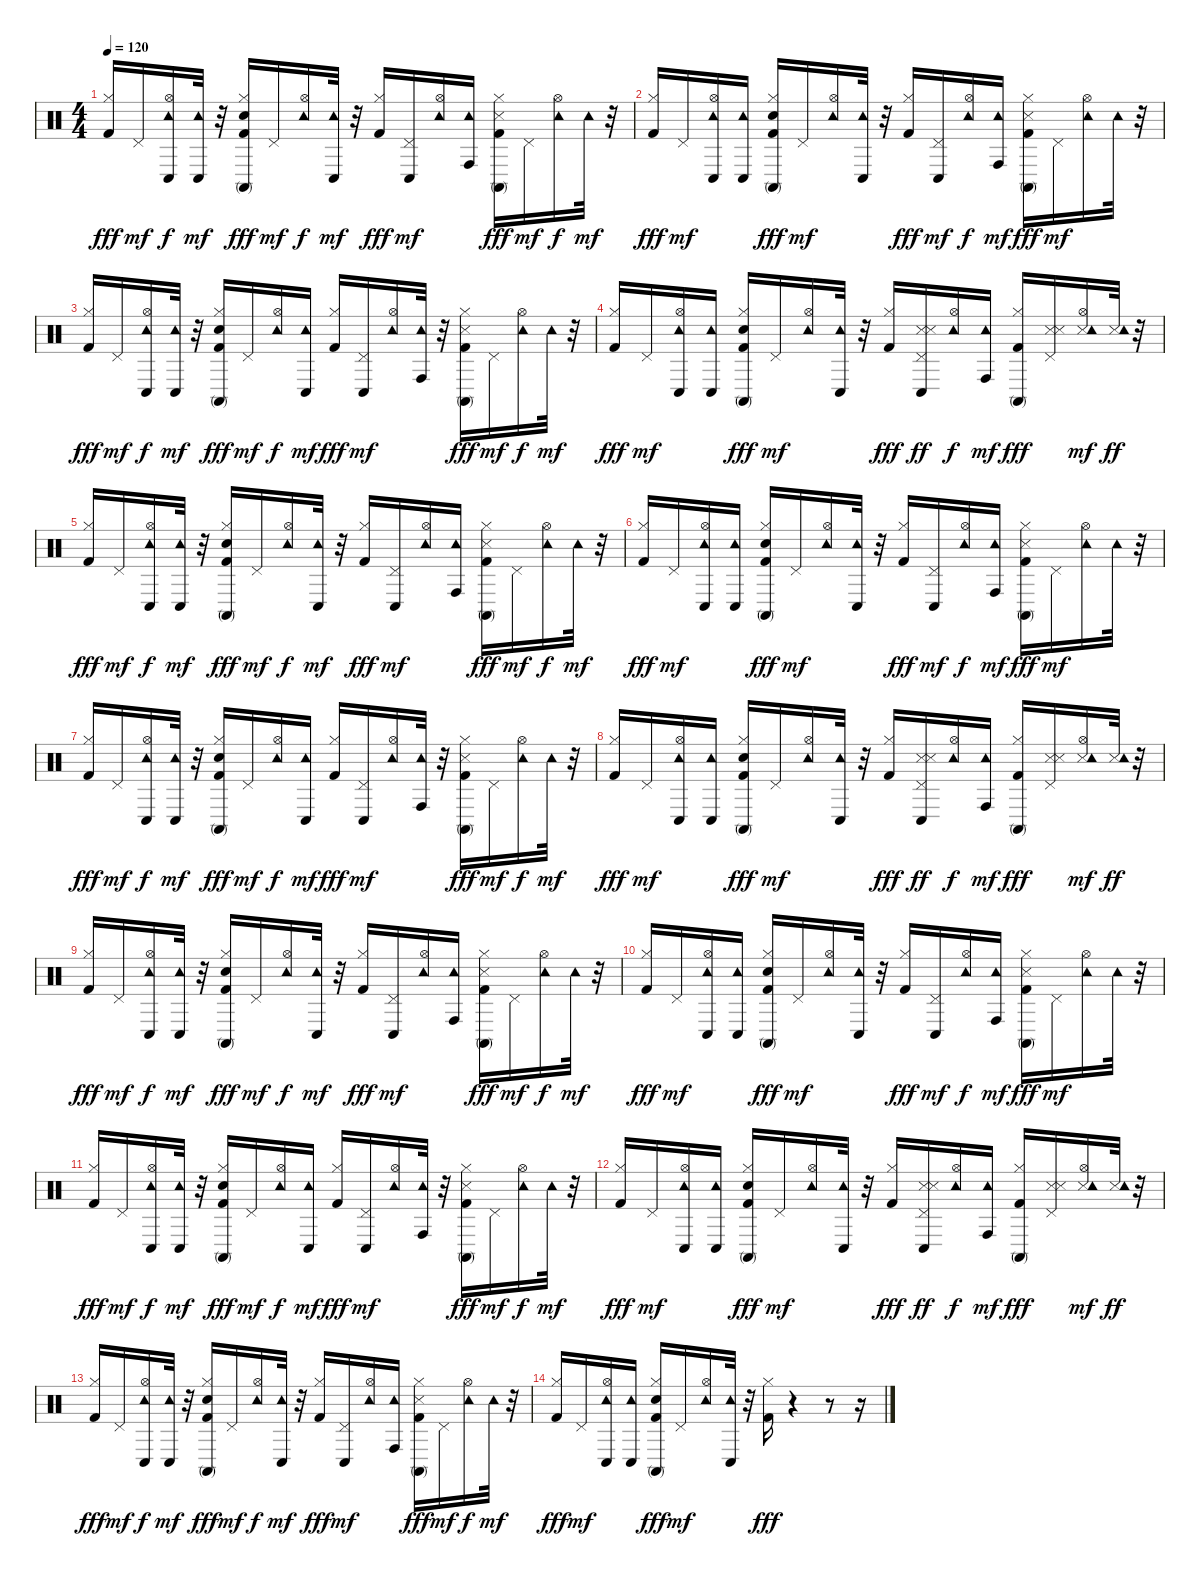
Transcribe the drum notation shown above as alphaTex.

\track "" {instrument percussion}
\staff {score}
\articulation defaults
\ts (4 4)
\tempo 120
\clef neutral
\ks c
("Kick (hit) 2" "Hi-Hat (closed)").16{dy fff} "Pedal Hi-Hat (hit)".16{dy mf} ("Conga low (hit)" "Hi-Hat (open)" "Tambourine (hit)").16{dy f} ("Conga low (hit)" "Tambourine (hit)").32{dy mf} r.32 ("Conga high (mute)" "Kick (hit) 2" "Hi-Hat (closed)" "Snare (hit) 2").16{dy fff} "Pedal Hi-Hat (hit)".16{dy mf} ("Hi-Hat (open)" "Tambourine (hit)").16{dy f} ("Conga low (hit)" "Tambourine (hit)").32{dy mf} r.32 ("Kick (hit) 2" "Hi-Hat (closed)").16{dy fff} ("Conga low (hit)" "Pedal Hi-Hat (hit)").16{dy mf} ("Hi-Hat (open)" "Tambourine (hit)").16 ("Conga high (hit)" "Tambourine (hit)").16 ("Conga high (mute)" "Kick (hit) 2" "Hi-Hat (closed)" "Snare (side stick) 3").16{dy fff} "Pedal Hi-Hat (hit)".16{dy mf} ("Hi-Hat (open)" "Tambourine (hit)").16{dy f} "Tambourine (hit)".32{dy mf} r.32 |
("Kick (hit) 2" "Hi-Hat (closed)").16{dy fff} "Pedal Hi-Hat (hit)".16{dy mf} ("Conga low (hit)" "Hi-Hat (open)" "Tambourine (hit)").16 ("Conga low (hit)" "Tambourine (hit)").16 ("Conga high (mute)" "Kick (hit) 2" "Hi-Hat (closed)" "Snare (hit) 2").16{dy fff} "Pedal Hi-Hat (hit)".16{dy mf} ("Hi-Hat (open)" "Tambourine (hit)").16 ("Conga low (hit)" "Tambourine (hit)").32 r.32 ("Kick (hit) 2" "Hi-Hat (closed)").16{dy fff} ("Conga low (hit)" "Pedal Hi-Hat (hit)").16{dy mf} ("Hi-Hat (open)" "Tambourine (hit)").16{dy f} ("Conga high (hit)" "Tambourine (hit)").16{dy mf} ("Hi-Hat (closed)" "Kick (hit) 2" "Conga high (mute)" "Snare (side stick) 3").16{dy fff} "Pedal Hi-Hat (hit)".16{dy mf} ("Hi-Hat (open)" "Tambourine (hit)").16 "Tambourine (hit)".32 r.32 |
("Hi-Hat (closed)" "Kick (hit) 2").16{dy fff} "Pedal Hi-Hat (hit)".16{dy mf} ("Conga low (hit)" "Hi-Hat (open)" "Tambourine (hit)").16{dy f} ("Conga low (hit)" "Tambourine (hit)").32{dy mf} r.32 ("Conga high (mute)" "Kick (hit) 2" "Hi-Hat (closed)" "Snare (hit) 2").16{dy fff} "Pedal Hi-Hat (hit)".16{dy mf} ("Hi-Hat (open)" "Tambourine (hit)").16{dy f} ("Conga low (hit)" "Tambourine (hit)").16{dy mf} ("Kick (hit) 2" "Hi-Hat (closed)").16{dy fff} ("Conga low (hit)" "Pedal Hi-Hat (hit)").16{dy mf} ("Hi-Hat (open)" "Tambourine (hit)").16 ("Conga high (hit)" "Tambourine (hit)").32 r.32 ("Hi-Hat (closed)" "Conga high (mute)" "Kick (hit) 2" "Snare (side stick) 3").16{dy fff} "Pedal Hi-Hat (hit)".16{dy mf} ("Hi-Hat (open)" "Tambourine (hit)").16{dy f} "Tambourine (hit)".32{dy mf} r.32 |
("Kick (hit) 2" "Hi-Hat (closed)").16{dy fff} "Pedal Hi-Hat (hit)".16{dy mf} ("Conga low (hit)" "Hi-Hat (open)" "Tambourine (hit)").16 ("Conga low (hit)" "Tambourine (hit)").16 ("Conga high (mute)" "Kick (hit) 2" "Hi-Hat (closed)" "Snare (hit) 2").16{dy fff} "Pedal Hi-Hat (hit)".16{dy mf} ("Hi-Hat (open)" "Tambourine (hit)").16 ("Conga low (hit)" "Tambourine (hit)").32 r.32 ("Kick (hit) 2" "Hi-Hat (closed)").16{dy fff} ("Conga low (hit)" "Pedal Hi-Hat (hit)" "Snare (side stick) 3" "Snare (side stick) 3").16{dy ff} ("Hi-Hat (open)" "Tambourine (hit)").16{dy f} ("Conga high (hit)" "Tambourine (hit)").16{dy mf} ("Hi-Hat (closed)" "Kick (hit) 2" "Conga high (mute)").16{dy fff} ("Pedal Hi-Hat (hit)" "Snare (side stick) 3" "Snare (side stick) 3").16 ("Hi-Hat (open)" "Snare (side stick) 3" "Tambourine (hit)").16{dy mf} ("Snare (side stick) 3" "Tambourine (hit)").32{dy ff} r.32 |
("Kick (hit) 2" "Hi-Hat (closed)").16{dy fff} "Pedal Hi-Hat (hit)".16{dy mf} ("Conga low (hit)" "Hi-Hat (open)" "Tambourine (hit)").16{dy f} ("Conga low (hit)" "Tambourine (hit)").32{dy mf} r.32 ("Conga high (mute)" "Kick (hit) 2" "Hi-Hat (closed)" "Snare (hit) 2").16{dy fff} "Pedal Hi-Hat (hit)".16{dy mf} ("Hi-Hat (open)" "Tambourine (hit)").16{dy f} ("Conga low (hit)" "Tambourine (hit)").32{dy mf} r.32 ("Kick (hit) 2" "Hi-Hat (closed)").16{dy fff} ("Conga low (hit)" "Pedal Hi-Hat (hit)").16{dy mf} ("Hi-Hat (open)" "Tambourine (hit)").16 ("Conga high (hit)" "Tambourine (hit)").16 ("Conga high (mute)" "Kick (hit) 2" "Hi-Hat (closed)" "Snare (side stick) 3").16{dy fff} "Pedal Hi-Hat (hit)".16{dy mf} ("Hi-Hat (open)" "Tambourine (hit)").16{dy f} "Tambourine (hit)".32{dy mf} r.32 |
("Kick (hit) 2" "Hi-Hat (closed)").16{dy fff} "Pedal Hi-Hat (hit)".16{dy mf} ("Conga low (hit)" "Hi-Hat (open)" "Tambourine (hit)").16 ("Conga low (hit)" "Tambourine (hit)").16 ("Conga high (mute)" "Kick (hit) 2" "Hi-Hat (closed)" "Snare (hit) 2").16{dy fff} "Pedal Hi-Hat (hit)".16{dy mf} ("Hi-Hat (open)" "Tambourine (hit)").16 ("Conga low (hit)" "Tambourine (hit)").32 r.32 ("Kick (hit) 2" "Hi-Hat (closed)").16{dy fff} ("Conga low (hit)" "Pedal Hi-Hat (hit)").16{dy mf} ("Hi-Hat (open)" "Tambourine (hit)").16{dy f} ("Conga high (hit)" "Tambourine (hit)").16{dy mf} ("Hi-Hat (closed)" "Kick (hit) 2" "Conga high (mute)" "Snare (side stick) 3").16{dy fff} "Pedal Hi-Hat (hit)".16{dy mf} ("Hi-Hat (open)" "Tambourine (hit)").16 "Tambourine (hit)".32 r.32 |
("Hi-Hat (closed)" "Kick (hit) 2").16{dy fff} "Pedal Hi-Hat (hit)".16{dy mf} ("Conga low (hit)" "Hi-Hat (open)" "Tambourine (hit)").16{dy f} ("Conga low (hit)" "Tambourine (hit)").32{dy mf} r.32 ("Conga high (mute)" "Kick (hit) 2" "Hi-Hat (closed)" "Snare (hit) 2").16{dy fff} "Pedal Hi-Hat (hit)".16{dy mf} ("Hi-Hat (open)" "Tambourine (hit)").16{dy f} ("Conga low (hit)" "Tambourine (hit)").16{dy mf} ("Kick (hit) 2" "Hi-Hat (closed)").16{dy fff} ("Conga low (hit)" "Pedal Hi-Hat (hit)").16{dy mf} ("Hi-Hat (open)" "Tambourine (hit)").16 ("Conga high (hit)" "Tambourine (hit)").32 r.32 ("Hi-Hat (closed)" "Conga high (mute)" "Kick (hit) 2" "Snare (side stick) 3").16{dy fff} "Pedal Hi-Hat (hit)".16{dy mf} ("Hi-Hat (open)" "Tambourine (hit)").16{dy f} "Tambourine (hit)".32{dy mf} r.32 |
("Kick (hit) 2" "Hi-Hat (closed)").16{dy fff} "Pedal Hi-Hat (hit)".16{dy mf} ("Conga low (hit)" "Hi-Hat (open)" "Tambourine (hit)").16 ("Conga low (hit)" "Tambourine (hit)").16 ("Conga high (mute)" "Kick (hit) 2" "Hi-Hat (closed)" "Snare (hit) 2").16{dy fff} "Pedal Hi-Hat (hit)".16{dy mf} ("Hi-Hat (open)" "Tambourine (hit)").16 ("Conga low (hit)" "Tambourine (hit)").32 r.32 ("Kick (hit) 2" "Hi-Hat (closed)").16{dy fff} ("Conga low (hit)" "Pedal Hi-Hat (hit)" "Snare (side stick) 3" "Snare (side stick) 3").16{dy ff} ("Hi-Hat (open)" "Tambourine (hit)").16{dy f} ("Conga high (hit)" "Tambourine (hit)").16{dy mf} ("Hi-Hat (closed)" "Kick (hit) 2" "Conga high (mute)").16{dy fff} ("Pedal Hi-Hat (hit)" "Snare (side stick) 3" "Snare (side stick) 3").16 ("Hi-Hat (open)" "Snare (side stick) 3" "Tambourine (hit)").16{dy mf} ("Snare (side stick) 3" "Tambourine (hit)").32{dy ff} r.32 |
("Kick (hit) 2" "Hi-Hat (closed)").16{dy fff} "Pedal Hi-Hat (hit)".16{dy mf} ("Conga low (hit)" "Hi-Hat (open)" "Tambourine (hit)").16{dy f} ("Conga low (hit)" "Tambourine (hit)").32{dy mf} r.32 ("Conga high (mute)" "Kick (hit) 2" "Hi-Hat (closed)" "Snare (hit) 2").16{dy fff} "Pedal Hi-Hat (hit)".16{dy mf} ("Hi-Hat (open)" "Tambourine (hit)").16{dy f} ("Conga low (hit)" "Tambourine (hit)").32{dy mf} r.32 ("Kick (hit) 2" "Hi-Hat (closed)").16{dy fff} ("Conga low (hit)" "Pedal Hi-Hat (hit)").16{dy mf} ("Hi-Hat (open)" "Tambourine (hit)").16 ("Conga high (hit)" "Tambourine (hit)").16 ("Conga high (mute)" "Kick (hit) 2" "Hi-Hat (closed)" "Snare (side stick) 3").16{dy fff} "Pedal Hi-Hat (hit)".16{dy mf} ("Hi-Hat (open)" "Tambourine (hit)").16{dy f} "Tambourine (hit)".32{dy mf} r.32 |
("Kick (hit) 2" "Hi-Hat (closed)").16{dy fff} "Pedal Hi-Hat (hit)".16{dy mf} ("Conga low (hit)" "Hi-Hat (open)" "Tambourine (hit)").16 ("Conga low (hit)" "Tambourine (hit)").16 ("Conga high (mute)" "Kick (hit) 2" "Hi-Hat (closed)" "Snare (hit) 2").16{dy fff} "Pedal Hi-Hat (hit)".16{dy mf} ("Hi-Hat (open)" "Tambourine (hit)").16 ("Conga low (hit)" "Tambourine (hit)").32 r.32 ("Kick (hit) 2" "Hi-Hat (closed)").16{dy fff} ("Conga low (hit)" "Pedal Hi-Hat (hit)").16{dy mf} ("Hi-Hat (open)" "Tambourine (hit)").16{dy f} ("Conga high (hit)" "Tambourine (hit)").16{dy mf} ("Hi-Hat (closed)" "Kick (hit) 2" "Conga high (mute)" "Snare (side stick) 3").16{dy fff} "Pedal Hi-Hat (hit)".16{dy mf} ("Hi-Hat (open)" "Tambourine (hit)").16 "Tambourine (hit)".32 r.32 |
("Hi-Hat (closed)" "Kick (hit) 2").16{dy fff} "Pedal Hi-Hat (hit)".16{dy mf} ("Conga low (hit)" "Hi-Hat (open)" "Tambourine (hit)").16{dy f} ("Conga low (hit)" "Tambourine (hit)").32{dy mf} r.32 ("Conga high (mute)" "Kick (hit) 2" "Hi-Hat (closed)" "Snare (hit) 2").16{dy fff} "Pedal Hi-Hat (hit)".16{dy mf} ("Hi-Hat (open)" "Tambourine (hit)").16{dy f} ("Conga low (hit)" "Tambourine (hit)").16{dy mf} ("Kick (hit) 2" "Hi-Hat (closed)").16{dy fff} ("Conga low (hit)" "Pedal Hi-Hat (hit)").16{dy mf} ("Hi-Hat (open)" "Tambourine (hit)").16 ("Conga high (hit)" "Tambourine (hit)").32 r.32 ("Hi-Hat (closed)" "Conga high (mute)" "Kick (hit) 2" "Snare (side stick) 3").16{dy fff} "Pedal Hi-Hat (hit)".16{dy mf} ("Hi-Hat (open)" "Tambourine (hit)").16{dy f} "Tambourine (hit)".32{dy mf} r.32 |
("Kick (hit) 2" "Hi-Hat (closed)").16{dy fff} "Pedal Hi-Hat (hit)".16{dy mf} ("Conga low (hit)" "Hi-Hat (open)" "Tambourine (hit)").16 ("Conga low (hit)" "Tambourine (hit)").16 ("Conga high (mute)" "Kick (hit) 2" "Hi-Hat (closed)" "Snare (hit) 2").16{dy fff} "Pedal Hi-Hat (hit)".16{dy mf} ("Hi-Hat (open)" "Tambourine (hit)").16 ("Conga low (hit)" "Tambourine (hit)").32 r.32 ("Kick (hit) 2" "Hi-Hat (closed)").16{dy fff} ("Conga low (hit)" "Pedal Hi-Hat (hit)" "Snare (side stick) 3" "Snare (side stick) 3").16{dy ff} ("Hi-Hat (open)" "Tambourine (hit)").16{dy f} ("Conga high (hit)" "Tambourine (hit)").16{dy mf} ("Hi-Hat (closed)" "Kick (hit) 2" "Conga high (mute)").16{dy fff} ("Pedal Hi-Hat (hit)" "Snare (side stick) 3" "Snare (side stick) 3").16 ("Hi-Hat (open)" "Snare (side stick) 3" "Tambourine (hit)").16{dy mf} ("Snare (side stick) 3" "Tambourine (hit)").32{dy ff} r.32 |
("Kick (hit) 2" "Hi-Hat (closed)").16{dy fff} "Pedal Hi-Hat (hit)".16{dy mf} ("Conga low (hit)" "Hi-Hat (open)" "Tambourine (hit)").16{dy f} ("Conga low (hit)" "Tambourine (hit)").32{dy mf} r.32 ("Conga high (mute)" "Kick (hit) 2" "Hi-Hat (closed)" "Snare (hit) 2").16{dy fff} "Pedal Hi-Hat (hit)".16{dy mf} ("Hi-Hat (open)" "Tambourine (hit)").16{dy f} ("Conga low (hit)" "Tambourine (hit)").32{dy mf} r.32 ("Kick (hit) 2" "Hi-Hat (closed)").16{dy fff} ("Conga low (hit)" "Pedal Hi-Hat (hit)").16{dy mf} ("Hi-Hat (open)" "Tambourine (hit)").16 ("Conga high (hit)" "Tambourine (hit)").16 ("Conga high (mute)" "Kick (hit) 2" "Hi-Hat (closed)" "Snare (side stick) 3").16{dy fff} "Pedal Hi-Hat (hit)".16{dy mf} ("Hi-Hat (open)" "Tambourine (hit)").16{dy f} "Tambourine (hit)".32{dy mf} r.32 |
("Kick (hit) 2" "Hi-Hat (closed)").16{dy fff} "Pedal Hi-Hat (hit)".16{dy mf} ("Conga low (hit)" "Hi-Hat (open)" "Tambourine (hit)").16 ("Conga low (hit)" "Tambourine (hit)").16 ("Conga high (mute)" "Kick (hit) 2" "Hi-Hat (closed)" "Snare (hit) 2").16{dy fff} "Pedal Hi-Hat (hit)".16{dy mf} ("Hi-Hat (open)" "Tambourine (hit)").16 ("Conga low (hit)" "Tambourine (hit)").32 r.32 ("Kick (hit) 2" "Hi-Hat (closed)").16{dy fff} r.4 r.8 r.16
